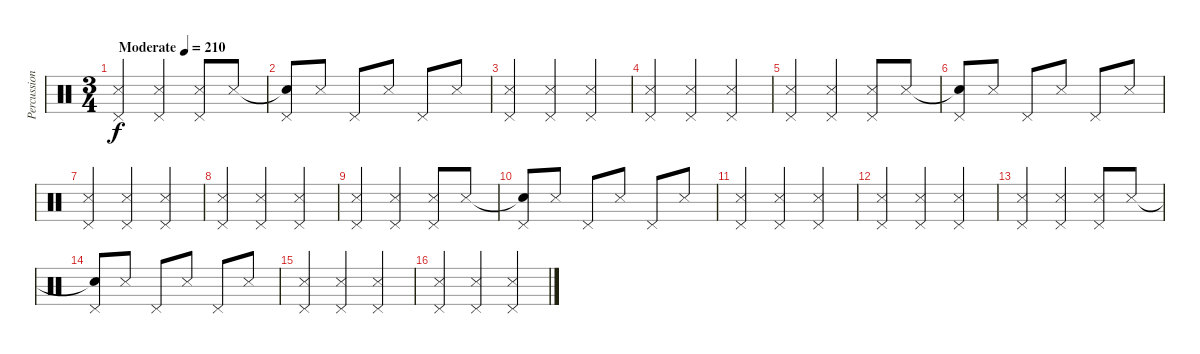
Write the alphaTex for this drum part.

\track ("Percussion" "Percussion") {instrument percussion}
\staff
\articulation defaults
\ts (3 4)
\tempo (210 "Moderate")
\clef neutral
\ks c
("Snare (side stick) 3" "Pedal Hi-Hat (hit)").4{dy f} ("Snare (side stick) 3" "Pedal Hi-Hat (hit)").4 ("Snare (side stick) 3" "Pedal Hi-Hat (hit)").8 "Snare (side stick) 3".8 |
("Snare (hit)"{t} "Pedal Hi-Hat (hit)").8 "Snare (side stick) 3".8 "Pedal Hi-Hat (hit)".8 "Snare (side stick) 3".8 "Pedal Hi-Hat (hit)".8 "Snare (side stick) 3".8 |
("Snare (side stick) 3" "Pedal Hi-Hat (hit)").4 ("Snare (side stick) 3" "Pedal Hi-Hat (hit)").4 ("Snare (side stick) 3" "Pedal Hi-Hat (hit)").4 |
("Snare (side stick) 3" "Pedal Hi-Hat (hit)").4 ("Snare (side stick) 3" "Pedal Hi-Hat (hit)").4 ("Snare (side stick) 3" "Pedal Hi-Hat (hit)").4 |
("Snare (side stick) 3" "Pedal Hi-Hat (hit)").4 ("Snare (side stick) 3" "Pedal Hi-Hat (hit)").4 ("Snare (side stick) 3" "Pedal Hi-Hat (hit)").8 "Snare (side stick) 3".8 |
("Snare (hit)"{t} "Pedal Hi-Hat (hit)").8 "Snare (side stick) 3".8 "Pedal Hi-Hat (hit)".8 "Snare (side stick) 3".8 "Pedal Hi-Hat (hit)".8 "Snare (side stick) 3".8 |
("Snare (side stick) 3" "Pedal Hi-Hat (hit)").4 ("Snare (side stick) 3" "Pedal Hi-Hat (hit)").4 ("Snare (side stick) 3" "Pedal Hi-Hat (hit)").4 |
("Snare (side stick) 3" "Pedal Hi-Hat (hit)").4 ("Snare (side stick) 3" "Pedal Hi-Hat (hit)").4 ("Snare (side stick) 3" "Pedal Hi-Hat (hit)").4 |
("Snare (side stick) 3" "Pedal Hi-Hat (hit)").4 ("Snare (side stick) 3" "Pedal Hi-Hat (hit)").4 ("Snare (side stick) 3" "Pedal Hi-Hat (hit)").8 "Snare (side stick) 3".8 |
("Snare (hit)"{t} "Pedal Hi-Hat (hit)").8 "Snare (side stick) 3".8 "Pedal Hi-Hat (hit)".8 "Snare (side stick) 3".8 "Pedal Hi-Hat (hit)".8 "Snare (side stick) 3".8 |
("Snare (side stick) 3" "Pedal Hi-Hat (hit)").4 ("Snare (side stick) 3" "Pedal Hi-Hat (hit)").4 ("Snare (side stick) 3" "Pedal Hi-Hat (hit)").4 |
("Snare (side stick) 3" "Pedal Hi-Hat (hit)").4 ("Snare (side stick) 3" "Pedal Hi-Hat (hit)").4 ("Snare (side stick) 3" "Pedal Hi-Hat (hit)").4 |
("Snare (side stick) 3" "Pedal Hi-Hat (hit)").4 ("Snare (side stick) 3" "Pedal Hi-Hat (hit)").4 ("Snare (side stick) 3" "Pedal Hi-Hat (hit)").8 "Snare (side stick) 3".8 |
("Snare (hit)"{t} "Pedal Hi-Hat (hit)").8 "Snare (side stick) 3".8 "Pedal Hi-Hat (hit)".8 "Snare (side stick) 3".8 "Pedal Hi-Hat (hit)".8 "Snare (side stick) 3".8 |
("Snare (side stick) 3" "Pedal Hi-Hat (hit)").4 ("Snare (side stick) 3" "Pedal Hi-Hat (hit)").4 ("Snare (side stick) 3" "Pedal Hi-Hat (hit)").4 |
("Snare (side stick) 3" "Pedal Hi-Hat (hit)").4 ("Snare (side stick) 3" "Pedal Hi-Hat (hit)").4 ("Snare (side stick) 3" "Pedal Hi-Hat (hit)").4
